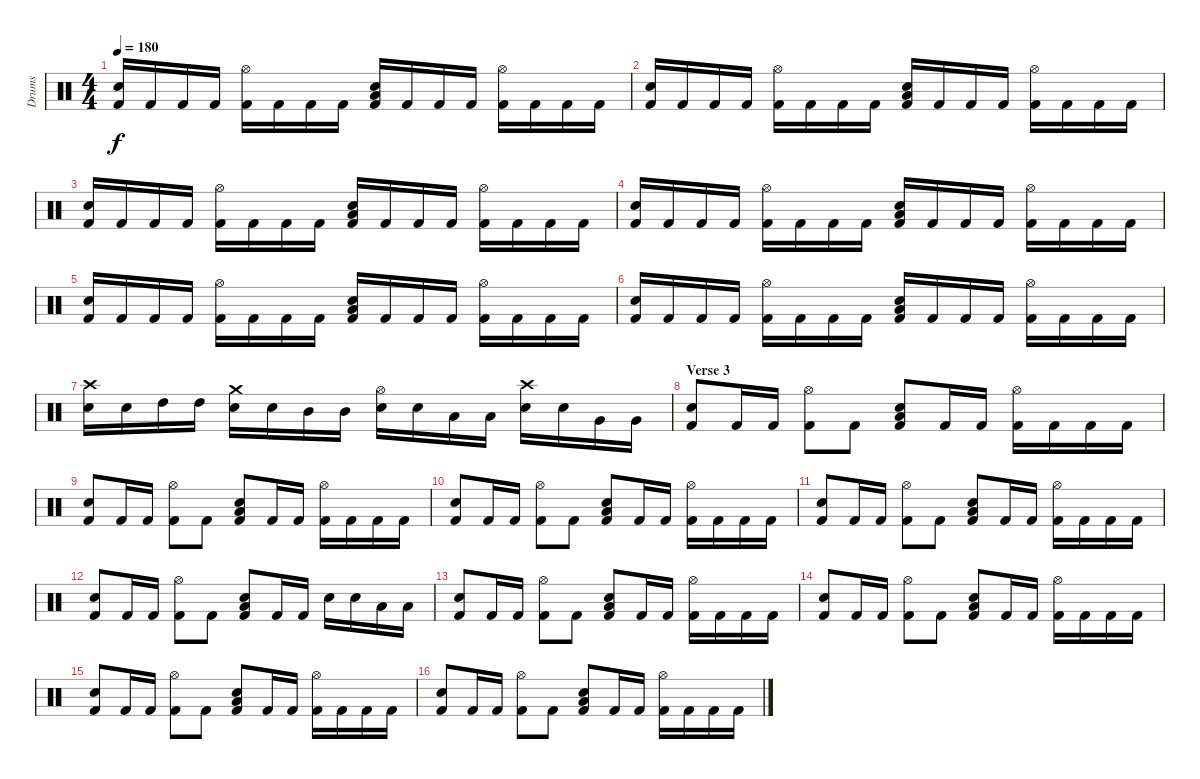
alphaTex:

\track ("Drums" "Drums") {instrument percussion}
\staff {score}
\articulation defaults
\ts (4 4)
\tempo 180
\clef neutral
\ks c
("Kick (hit) 2" "Electric Snare (hit)").16{dy f} "Kick (hit) 2".16 "Kick (hit) 2".16 "Kick (hit) 2".16 ("Kick (hit) 2" "Hi-Hat (open)").16 "Kick (hit) 2".16 "Kick (hit) 2".16 "Kick (hit) 2".16 ("Kick (hit) 2" "Low Tom (hit)" "Electric Snare (hit)").16 "Kick (hit) 2".16 "Kick (hit) 2".16 "Kick (hit) 2".16 ("Kick (hit) 2" "Hi-Hat (open)").16 "Kick (hit) 2".16 "Kick (hit) 2".16 "Kick (hit) 2".16 |
("Kick (hit) 2" "Electric Snare (hit)").16 "Kick (hit) 2".16 "Kick (hit) 2".16 "Kick (hit) 2".16 ("Kick (hit) 2" "Hi-Hat (open)").16 "Kick (hit) 2".16 "Kick (hit) 2".16 "Kick (hit) 2".16 ("Kick (hit) 2" "Low Tom (hit)" "Electric Snare (hit)").16 "Kick (hit) 2".16 "Kick (hit) 2".16 "Kick (hit) 2".16 ("Kick (hit) 2" "Hi-Hat (open)").16 "Kick (hit) 2".16 "Kick (hit) 2".16 "Kick (hit) 2".16 |
("Kick (hit) 2" "Electric Snare (hit)").16 "Kick (hit) 2".16 "Kick (hit) 2".16 "Kick (hit) 2".16 ("Kick (hit) 2" "Hi-Hat (open)").16 "Kick (hit) 2".16 "Kick (hit) 2".16 "Kick (hit) 2".16 ("Kick (hit) 2" "Low Tom (hit)" "Electric Snare (hit)").16 "Kick (hit) 2".16 "Kick (hit) 2".16 "Kick (hit) 2".16 ("Kick (hit) 2" "Hi-Hat (open)").16 "Kick (hit) 2".16 "Kick (hit) 2".16 "Kick (hit) 2".16 |
("Kick (hit) 2" "Electric Snare (hit)").16 "Kick (hit) 2".16 "Kick (hit) 2".16 "Kick (hit) 2".16 ("Kick (hit) 2" "Hi-Hat (open)").16 "Kick (hit) 2".16 "Kick (hit) 2".16 "Kick (hit) 2".16 ("Kick (hit) 2" "Low Tom (hit)" "Electric Snare (hit)").16 "Kick (hit) 2".16 "Kick (hit) 2".16 "Kick (hit) 2".16 ("Kick (hit) 2" "Hi-Hat (open)").16 "Kick (hit) 2".16 "Kick (hit) 2".16 "Kick (hit) 2".16 |
("Kick (hit) 2" "Electric Snare (hit)").16 "Kick (hit) 2".16 "Kick (hit) 2".16 "Kick (hit) 2".16 ("Kick (hit) 2" "Hi-Hat (open)").16 "Kick (hit) 2".16 "Kick (hit) 2".16 "Kick (hit) 2".16 ("Kick (hit) 2" "Low Tom (hit)" "Electric Snare (hit)").16 "Kick (hit) 2".16 "Kick (hit) 2".16 "Kick (hit) 2".16 ("Kick (hit) 2" "Hi-Hat (open)").16 "Kick (hit) 2".16 "Kick (hit) 2".16 "Kick (hit) 2".16 |
("Kick (hit) 2" "Electric Snare (hit)").16 "Kick (hit) 2".16 "Kick (hit) 2".16 "Kick (hit) 2".16 ("Kick (hit) 2" "Hi-Hat (open)").16 "Kick (hit) 2".16 "Kick (hit) 2".16 "Kick (hit) 2".16 ("Kick (hit) 2" "Low Tom (hit)" "Electric Snare (hit)").16 "Kick (hit) 2".16 "Kick (hit) 2".16 "Kick (hit) 2".16 ("Kick (hit) 2" "Hi-Hat (open)").16 "Kick (hit) 2".16 "Kick (hit) 2".16 "Kick (hit) 2".16 |
("Electric Snare (hit)" "Crash high (hit)").16 "Electric Snare (hit)".16 "High Tom (hit)".16 "High Tom (hit)".16 ("Electric Snare (hit)" "Crash medium (hit)").16 "Electric Snare (hit)".16 "Mid Tom (hit)".16 "Mid Tom (hit)".16 ("Electric Snare (hit)" "Hi-Hat (open)").16 "Electric Snare (hit)".16 "Low Tom (hit)".16 "Low Tom (hit)".16 ("Electric Snare (hit)" "Crash high (hit)").16 "Electric Snare (hit)".16 "Very Low Tom (hit)".16 "Very Low Tom (hit)".16 |
\section ("" "Verse 3")
("Kick (hit) 2" "Electric Snare (hit)").8 "Kick (hit) 2".16 "Kick (hit) 2".16 ("Kick (hit) 2" "Hi-Hat (open)").8 "Kick (hit) 2".8 ("Kick (hit) 2" "Low Tom (hit)" "Electric Snare (hit)").8 "Kick (hit) 2".16 "Kick (hit) 2".16 ("Kick (hit) 2" "Hi-Hat (open)").16 "Kick (hit) 2".16 "Kick (hit) 2".16 "Kick (hit) 2".16 |
("Kick (hit) 2" "Electric Snare (hit)").8 "Kick (hit) 2".16 "Kick (hit) 2".16 ("Kick (hit) 2" "Hi-Hat (open)").8 "Kick (hit) 2".8 ("Kick (hit) 2" "Low Tom (hit)" "Electric Snare (hit)").8 "Kick (hit) 2".16 "Kick (hit) 2".16 ("Kick (hit) 2" "Hi-Hat (open)").16 "Kick (hit) 2".16 "Kick (hit) 2".16 "Kick (hit) 2".16 |
("Kick (hit) 2" "Electric Snare (hit)").8 "Kick (hit) 2".16 "Kick (hit) 2".16 ("Kick (hit) 2" "Hi-Hat (open)").8 "Kick (hit) 2".8 ("Kick (hit) 2" "Low Tom (hit)" "Electric Snare (hit)").8 "Kick (hit) 2".16 "Kick (hit) 2".16 ("Kick (hit) 2" "Hi-Hat (open)").16 "Kick (hit) 2".16 "Kick (hit) 2".16 "Kick (hit) 2".16 |
("Kick (hit) 2" "Electric Snare (hit)").8 "Kick (hit) 2".16 "Kick (hit) 2".16 ("Kick (hit) 2" "Hi-Hat (open)").8 "Kick (hit) 2".8 ("Kick (hit) 2" "Low Tom (hit)" "Electric Snare (hit)").8 "Kick (hit) 2".16 "Kick (hit) 2".16 ("Kick (hit) 2" "Hi-Hat (open)").16 "Kick (hit) 2".16 "Kick (hit) 2".16 "Kick (hit) 2".16 |
("Kick (hit) 2" "Electric Snare (hit)").8 "Kick (hit) 2".16 "Kick (hit) 2".16 ("Kick (hit) 2" "Hi-Hat (open)").8 "Kick (hit) 2".8 ("Kick (hit) 2" "Low Tom (hit)" "Electric Snare (hit)").8 "Kick (hit) 2".16 "Kick (hit) 2".16 "Electric Snare (hit)".16 "Electric Snare (hit)".16 "Low Tom (hit)".16 "Low Tom (hit)".16 |
("Kick (hit) 2" "Electric Snare (hit)").8 "Kick (hit) 2".16 "Kick (hit) 2".16 ("Kick (hit) 2" "Hi-Hat (open)").8 "Kick (hit) 2".8 ("Kick (hit) 2" "Low Tom (hit)" "Electric Snare (hit)").8 "Kick (hit) 2".16 "Kick (hit) 2".16 ("Kick (hit) 2" "Hi-Hat (open)").16 "Kick (hit) 2".16 "Kick (hit) 2".16 "Kick (hit) 2".16 |
("Kick (hit) 2" "Electric Snare (hit)").8 "Kick (hit) 2".16 "Kick (hit) 2".16 ("Kick (hit) 2" "Hi-Hat (open)").8 "Kick (hit) 2".8 ("Kick (hit) 2" "Low Tom (hit)" "Electric Snare (hit)").8 "Kick (hit) 2".16 "Kick (hit) 2".16 ("Kick (hit) 2" "Hi-Hat (open)").16 "Kick (hit) 2".16 "Kick (hit) 2".16 "Kick (hit) 2".16 |
("Kick (hit) 2" "Electric Snare (hit)").8 "Kick (hit) 2".16 "Kick (hit) 2".16 ("Kick (hit) 2" "Hi-Hat (open)").8 "Kick (hit) 2".8 ("Kick (hit) 2" "Low Tom (hit)" "Electric Snare (hit)").8 "Kick (hit) 2".16 "Kick (hit) 2".16 ("Kick (hit) 2" "Hi-Hat (open)").16 "Kick (hit) 2".16 "Kick (hit) 2".16 "Kick (hit) 2".16 |
("Kick (hit) 2" "Electric Snare (hit)").8 "Kick (hit) 2".16 "Kick (hit) 2".16 ("Kick (hit) 2" "Hi-Hat (open)").8 "Kick (hit) 2".8 ("Kick (hit) 2" "Low Tom (hit)" "Electric Snare (hit)").8 "Kick (hit) 2".16 "Kick (hit) 2".16 ("Kick (hit) 2" "Hi-Hat (open)").16 "Kick (hit) 2".16 "Kick (hit) 2".16 "Kick (hit) 2".16
